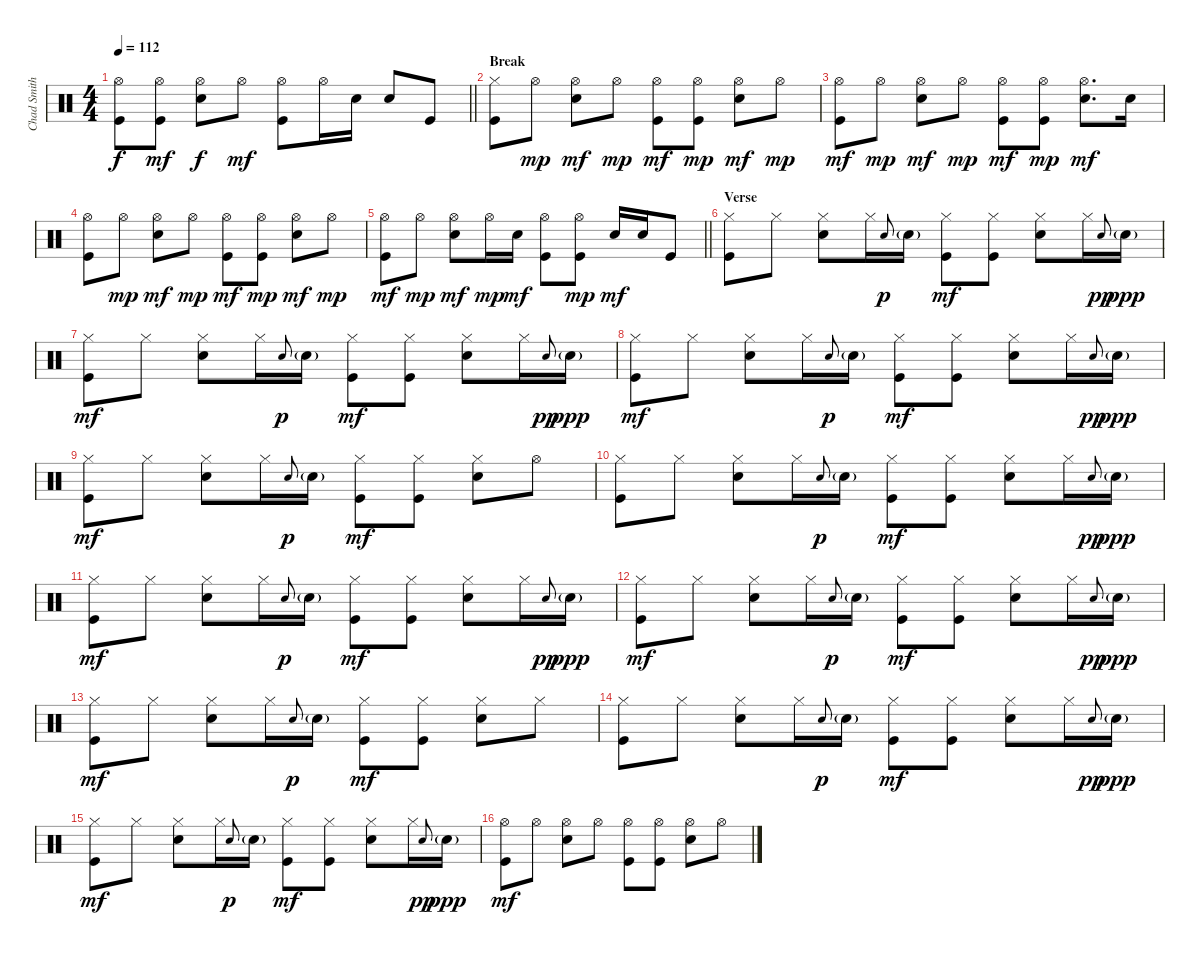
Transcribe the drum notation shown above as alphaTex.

\track ("Chad Smith" "Chad Smith") {instrument percussion}
\staff {score}
\articulation defaults
\ts (4 4)
\tempo 112
\clef neutral
\barLineRight lightlight
\ks c
("Hi-Hat (open)" "Kick (hit)").8{dy f} ("Hi-Hat (open)" "Kick (hit)").8{dy mf} ("Hi-Hat (open)" "Snare (hit) 2").8{dy f} "Hi-Hat (open)".8{dy mf} ("Hi-Hat (open)" "Kick (hit)").8 "Hi-Hat (open)".16 "Snare (hit) 2".16 "Snare (hit) 2".8 "Kick (hit)".8 |
\section ("" "Break")
("Hi-Hat (closed)" "Kick (hit)").8 "Hi-Hat (open)".8{dy mp} ("Hi-Hat (open)" "Snare (hit) 2").8{dy mf} "Hi-Hat (open)".8{dy mp} ("Hi-Hat (open)" "Kick (hit)").8{dy mf} ("Hi-Hat (open)" "Kick (hit)").8{dy mp} ("Hi-Hat (open)" "Snare (hit) 2").8{dy mf} "Hi-Hat (open)".8{dy mp} |
("Hi-Hat (open)" "Kick (hit)").8{dy mf} "Hi-Hat (open)".8{dy mp} ("Hi-Hat (open)" "Snare (hit) 2").8{dy mf} "Hi-Hat (open)".8{dy mp} ("Hi-Hat (open)" "Kick (hit)").8{dy mf} ("Hi-Hat (open)" "Kick (hit)").8{dy mp} ("Hi-Hat (open)" "Snare (hit) 2").8{d dy mf} "Snare (hit) 2".16 |
("Hi-Hat (open)" "Kick (hit)").8 "Hi-Hat (open)".8{dy mp} ("Hi-Hat (open)" "Snare (hit) 2").8{dy mf} "Hi-Hat (open)".8{dy mp} ("Hi-Hat (open)" "Kick (hit)").8{dy mf} ("Hi-Hat (open)" "Kick (hit)").8{dy mp} ("Hi-Hat (open)" "Snare (hit) 2").8{dy mf} "Hi-Hat (open)".8{dy mp} |
\barLineRight lightlight
("Hi-Hat (open)" "Kick (hit)").8{dy mf} "Hi-Hat (open)".8{dy mp} ("Hi-Hat (open)" "Snare (hit) 2").8{dy mf} "Hi-Hat (open)".16{dy mp} "Snare (hit) 2".16{dy mf} ("Hi-Hat (open)" "Kick (hit)").8 ("Hi-Hat (open)" "Kick (hit)").8{dy mp} "Snare (hit) 2".16{dy mf} "Snare (hit) 2".16 "Kick (hit)".8 |
\section ("" "Verse")
("Hi-Hat (closed)" "Kick (hit)").8 "Hi-Hat (closed)".8 ("Hi-Hat (closed)" "Snare (hit) 2").8 "Hi-Hat (closed)".16 "Snare (hit) 2".8{gr onbeat dy p} "Snare (hit) 2"{g}.16 ("Hi-Hat (closed)" "Kick (hit)").8{dy mf} ("Hi-Hat (closed)" "Kick (hit)").8 ("Hi-Hat (closed)" "Snare (hit) 2").8 "Hi-Hat (closed)".16 "Snare (hit) 2".8{gr onbeat dy pp} "Snare (hit) 2"{g}.16{dy ppp} |
("Hi-Hat (closed)" "Kick (hit)").8{dy mf} "Hi-Hat (closed)".8 ("Hi-Hat (closed)" "Snare (hit) 2").8 "Hi-Hat (closed)".16 "Snare (hit) 2".8{gr onbeat dy p} "Snare (hit) 2"{g}.16 ("Hi-Hat (closed)" "Kick (hit)").8{dy mf} ("Hi-Hat (closed)" "Kick (hit)").8 ("Hi-Hat (closed)" "Snare (hit) 2").8 "Hi-Hat (closed)".16 "Snare (hit) 2".8{gr onbeat dy pp} "Snare (hit) 2"{g}.16{dy ppp} |
("Hi-Hat (closed)" "Kick (hit)").8{dy mf} "Hi-Hat (closed)".8 ("Hi-Hat (closed)" "Snare (hit) 2").8 "Hi-Hat (closed)".16 "Snare (hit) 2".8{gr onbeat dy p} "Snare (hit) 2"{g}.16 ("Hi-Hat (closed)" "Kick (hit)").8{dy mf} ("Hi-Hat (closed)" "Kick (hit)").8 ("Hi-Hat (closed)" "Snare (hit) 2").8 "Hi-Hat (closed)".16 "Snare (hit) 2".8{gr onbeat dy pp} "Snare (hit) 2"{g}.16{dy ppp} |
("Hi-Hat (closed)" "Kick (hit)").8{dy mf} "Hi-Hat (closed)".8 ("Hi-Hat (closed)" "Snare (hit) 2").8 "Hi-Hat (closed)".16 "Snare (hit) 2".8{gr onbeat dy p} "Snare (hit) 2"{g}.16 ("Hi-Hat (closed)" "Kick (hit)").8{dy mf} ("Hi-Hat (closed)" "Kick (hit)").8 ("Hi-Hat (closed)" "Snare (hit) 2").8 "Hi-Hat (open)".8 |
("Hi-Hat (closed)" "Kick (hit)").8 "Hi-Hat (closed)".8 ("Hi-Hat (closed)" "Snare (hit) 2").8 "Hi-Hat (closed)".16 "Snare (hit) 2".8{gr onbeat dy p} "Snare (hit) 2"{g}.16 ("Hi-Hat (closed)" "Kick (hit)").8{dy mf} ("Hi-Hat (closed)" "Kick (hit)").8 ("Hi-Hat (closed)" "Snare (hit) 2").8 "Hi-Hat (closed)".16 "Snare (hit) 2".8{gr onbeat dy pp} "Snare (hit) 2"{g}.16{dy ppp} |
("Hi-Hat (closed)" "Kick (hit)").8{dy mf} "Hi-Hat (closed)".8 ("Hi-Hat (closed)" "Snare (hit) 2").8 "Hi-Hat (closed)".16 "Snare (hit) 2".8{gr onbeat dy p} "Snare (hit) 2"{g}.16 ("Hi-Hat (closed)" "Kick (hit)").8{dy mf} ("Hi-Hat (closed)" "Kick (hit)").8 ("Hi-Hat (closed)" "Snare (hit) 2").8 "Hi-Hat (closed)".16 "Snare (hit) 2".8{gr onbeat dy pp} "Snare (hit) 2"{g}.16{dy ppp} |
("Hi-Hat (closed)" "Kick (hit)").8{dy mf} "Hi-Hat (closed)".8 ("Hi-Hat (closed)" "Snare (hit) 2").8 "Hi-Hat (closed)".16 "Snare (hit) 2".8{gr onbeat dy p} "Snare (hit) 2"{g}.16 ("Hi-Hat (closed)" "Kick (hit)").8{dy mf} ("Hi-Hat (closed)" "Kick (hit)").8 ("Hi-Hat (closed)" "Snare (hit) 2").8 "Hi-Hat (closed)".16 "Snare (hit) 2".8{gr onbeat dy pp} "Snare (hit) 2"{g}.16{dy ppp} |
("Hi-Hat (closed)" "Kick (hit)").8{dy mf} "Hi-Hat (closed)".8 ("Hi-Hat (closed)" "Snare (hit) 2").8 "Hi-Hat (closed)".16 "Snare (hit) 2".8{gr onbeat dy p} "Snare (hit) 2"{g}.16 ("Hi-Hat (closed)" "Kick (hit)").8{dy mf} ("Hi-Hat (closed)" "Kick (hit)").8 ("Hi-Hat (closed)" "Snare (hit) 2").8 "Hi-Hat (closed)".8 |
("Hi-Hat (closed)" "Kick (hit)").8 "Hi-Hat (closed)".8 ("Hi-Hat (closed)" "Snare (hit) 2").8 "Hi-Hat (closed)".16 "Snare (hit) 2".8{gr onbeat dy p} "Snare (hit) 2"{g}.16 ("Hi-Hat (closed)" "Kick (hit)").8{dy mf} ("Hi-Hat (closed)" "Kick (hit)").8 ("Hi-Hat (closed)" "Snare (hit) 2").8 "Hi-Hat (closed)".16 "Snare (hit) 2".8{gr onbeat dy pp} "Snare (hit) 2"{g}.16{dy ppp} |
("Hi-Hat (closed)" "Kick (hit)").8{dy mf} "Hi-Hat (closed)".8 ("Hi-Hat (closed)" "Snare (hit) 2").8 "Hi-Hat (closed)".16 "Snare (hit) 2".8{gr onbeat dy p} "Snare (hit) 2"{g}.16 ("Hi-Hat (closed)" "Kick (hit)").8{dy mf} ("Hi-Hat (closed)" "Kick (hit)").8 ("Hi-Hat (closed)" "Snare (hit) 2").8 "Hi-Hat (closed)".16 "Snare (hit) 2".8{gr onbeat dy pp} "Snare (hit) 2"{g}.16{dy ppp} |
("Hi-Hat (open)" "Kick (hit)").8{dy mf} "Hi-Hat (open)".8 ("Hi-Hat (open)" "Snare (hit) 2").8 "Hi-Hat (open)".8 ("Hi-Hat (open)" "Kick (hit)").8 ("Hi-Hat (open)" "Kick (hit)").8 ("Hi-Hat (open)" "Snare (hit) 2").8 "Hi-Hat (open)".8
